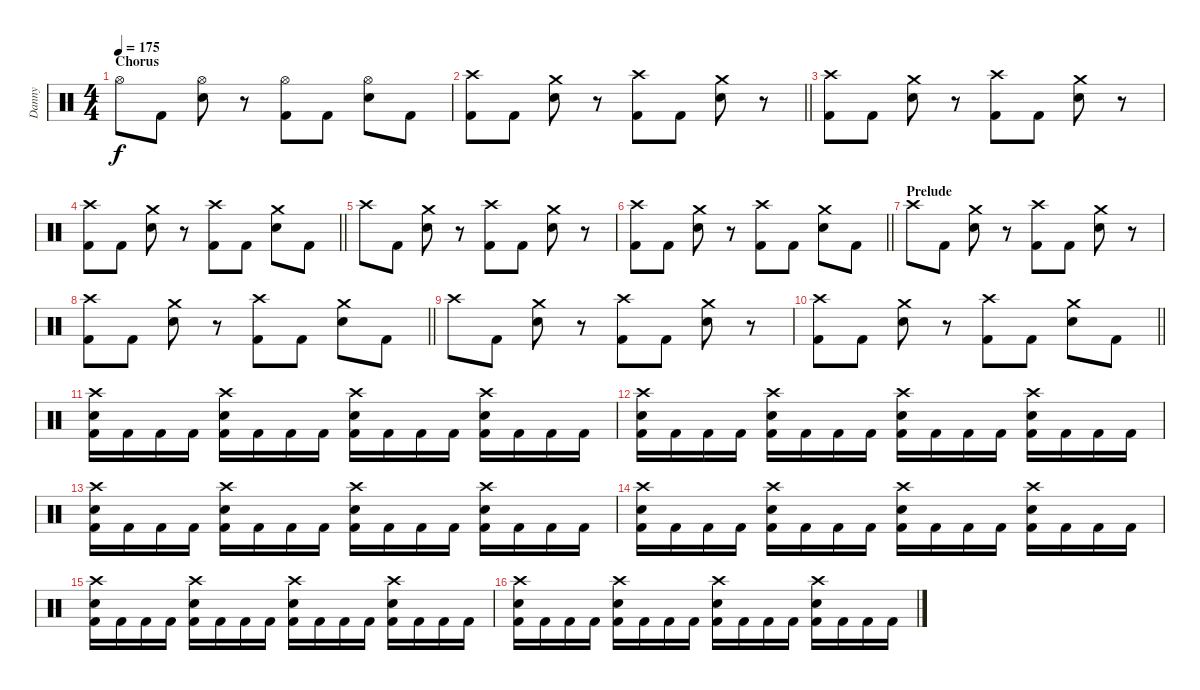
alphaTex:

\track ("Danny" "Danny") {instrument percussion}
\staff {score}
\articulation defaults
\ts (4 4)
\section ("" "Chorus")
\tempo 175
\clef neutral
\ks c "Hi-Hat (open)".8{dy f} "Kick (hit) 2".8
("Hi-Hat (open)" "Electric Snare (hit)").8 r.8 ("Hi-Hat (open)" "Kick (hit) 2").8 "Kick (hit) 2".8 ("Hi-Hat (open)" "Electric Snare (hit)").8 "Kick (hit) 2".8 |
\barLineRight lightlight
("Crash high (hit)" "Kick (hit) 2").8 "Kick (hit) 2".8 ("Crash medium (hit)" "Electric Snare (hit)").8 r.8 ("Crash high (hit)" "Kick (hit) 2").8 "Kick (hit) 2".8 ("Crash medium (hit)" "Electric Snare (hit)").8 r.8 |
("Crash high (hit)" "Kick (hit) 2").8 "Kick (hit) 2".8 ("Crash medium (hit)" "Electric Snare (hit)").8 r.8 ("Crash high (hit)" "Kick (hit) 2").8 "Kick (hit) 2".8 ("Crash medium (hit)" "Electric Snare (hit)").8 r.8 |
\barLineRight lightlight
("Crash high (hit)" "Kick (hit) 2").8 "Kick (hit) 2".8 ("Crash medium (hit)" "Electric Snare (hit)").8 r.8 ("Crash high (hit)" "Kick (hit) 2").8 "Kick (hit) 2".8 ("Crash medium (hit)" "Electric Snare (hit)").8 "Kick (hit) 2".8 |
"Crash high (hit)".8 "Kick (hit) 2".8 ("Crash medium (hit)" "Electric Snare (hit)").8 r.8 ("Crash high (hit)" "Kick (hit) 2").8 "Kick (hit) 2".8 ("Crash medium (hit)" "Electric Snare (hit)").8 r.8 |
\barLineRight lightlight
("Crash high (hit)" "Kick (hit) 2").8 "Kick (hit) 2".8 ("Crash medium (hit)" "Electric Snare (hit)").8 r.8 ("Crash high (hit)" "Kick (hit) 2").8 "Kick (hit) 2".8 ("Crash medium (hit)" "Electric Snare (hit)").8 "Kick (hit) 2".8 |
\section ("" "Prelude ")
"Crash high (hit)".8 "Kick (hit) 2".8 ("Crash medium (hit)" "Electric Snare (hit)").8 r.8 ("Crash high (hit)" "Kick (hit) 2").8 "Kick (hit) 2".8 ("Crash medium (hit)" "Electric Snare (hit)").8 r.8 |
\barLineRight lightlight
("Crash high (hit)" "Kick (hit) 2").8 "Kick (hit) 2".8 ("Crash medium (hit)" "Electric Snare (hit)").8 r.8 ("Crash high (hit)" "Kick (hit) 2").8 "Kick (hit) 2".8 ("Crash medium (hit)" "Electric Snare (hit)").8 "Kick (hit) 2".8 |
"Crash high (hit)".8 "Kick (hit) 2".8 ("Crash medium (hit)" "Electric Snare (hit)").8 r.8 ("Crash high (hit)" "Kick (hit) 2").8 "Kick (hit) 2".8 ("Crash medium (hit)" "Electric Snare (hit)").8 r.8 |
\barLineRight lightlight
("Crash high (hit)" "Kick (hit) 2").8 "Kick (hit) 2".8 ("Crash medium (hit)" "Electric Snare (hit)").8 r.8 ("Crash high (hit)" "Kick (hit) 2").8 "Kick (hit) 2".8 ("Crash medium (hit)" "Electric Snare (hit)").8 "Kick (hit) 2".8 |
("Crash high (hit)" "Electric Snare (hit)" "Kick (hit) 2").16 "Kick (hit) 2".16 "Kick (hit) 2".16 "Kick (hit) 2".16 ("Crash high (hit)" "Electric Snare (hit)" "Kick (hit) 2").16 "Kick (hit) 2".16 "Kick (hit) 2".16 "Kick (hit) 2".16 ("Crash high (hit)" "Electric Snare (hit)" "Kick (hit) 2").16 "Kick (hit) 2".16 "Kick (hit) 2".16 "Kick (hit) 2".16 ("Crash high (hit)" "Electric Snare (hit)" "Kick (hit) 2").16 "Kick (hit) 2".16 "Kick (hit) 2".16 "Kick (hit) 2".16 |
("Crash high (hit)" "Electric Snare (hit)" "Kick (hit) 2").16 "Kick (hit) 2".16 "Kick (hit) 2".16 "Kick (hit) 2".16 ("Crash high (hit)" "Electric Snare (hit)" "Kick (hit) 2").16 "Kick (hit) 2".16 "Kick (hit) 2".16 "Kick (hit) 2".16 ("Crash high (hit)" "Electric Snare (hit)" "Kick (hit) 2").16 "Kick (hit) 2".16 "Kick (hit) 2".16 "Kick (hit) 2".16 ("Crash high (hit)" "Electric Snare (hit)" "Kick (hit) 2").16 "Kick (hit) 2".16 "Kick (hit) 2".16 "Kick (hit) 2".16 |
("Crash high (hit)" "Electric Snare (hit)" "Kick (hit) 2").16 "Kick (hit) 2".16 "Kick (hit) 2".16 "Kick (hit) 2".16 ("Crash high (hit)" "Electric Snare (hit)" "Kick (hit) 2").16 "Kick (hit) 2".16 "Kick (hit) 2".16 "Kick (hit) 2".16 ("Crash high (hit)" "Electric Snare (hit)" "Kick (hit) 2").16 "Kick (hit) 2".16 "Kick (hit) 2".16 "Kick (hit) 2".16 ("Crash high (hit)" "Electric Snare (hit)" "Kick (hit) 2").16 "Kick (hit) 2".16 "Kick (hit) 2".16 "Kick (hit) 2".16 |
("Crash high (hit)" "Electric Snare (hit)" "Kick (hit) 2").16 "Kick (hit) 2".16 "Kick (hit) 2".16 "Kick (hit) 2".16 ("Crash high (hit)" "Electric Snare (hit)" "Kick (hit) 2").16 "Kick (hit) 2".16 "Kick (hit) 2".16 "Kick (hit) 2".16 ("Crash high (hit)" "Electric Snare (hit)" "Kick (hit) 2").16 "Kick (hit) 2".16 "Kick (hit) 2".16 "Kick (hit) 2".16 ("Crash high (hit)" "Electric Snare (hit)" "Kick (hit) 2").16 "Kick (hit) 2".16 "Kick (hit) 2".16 "Kick (hit) 2".16 |
("Crash high (hit)" "Electric Snare (hit)" "Kick (hit) 2").16 "Kick (hit) 2".16 "Kick (hit) 2".16 "Kick (hit) 2".16 ("Crash high (hit)" "Electric Snare (hit)" "Kick (hit) 2").16 "Kick (hit) 2".16 "Kick (hit) 2".16 "Kick (hit) 2".16 ("Crash high (hit)" "Electric Snare (hit)" "Kick (hit) 2").16 "Kick (hit) 2".16 "Kick (hit) 2".16 "Kick (hit) 2".16 ("Crash high (hit)" "Electric Snare (hit)" "Kick (hit) 2").16 "Kick (hit) 2".16 "Kick (hit) 2".16 "Kick (hit) 2".16 |
("Crash high (hit)" "Electric Snare (hit)" "Kick (hit) 2").16 "Kick (hit) 2".16 "Kick (hit) 2".16 "Kick (hit) 2".16 ("Crash high (hit)" "Electric Snare (hit)" "Kick (hit) 2").16 "Kick (hit) 2".16 "Kick (hit) 2".16 "Kick (hit) 2".16 ("Crash high (hit)" "Electric Snare (hit)" "Kick (hit) 2").16 "Kick (hit) 2".16 "Kick (hit) 2".16 "Kick (hit) 2".16 ("Crash high (hit)" "Electric Snare (hit)" "Kick (hit) 2").16 "Kick (hit) 2".16 "Kick (hit) 2".16 "Kick (hit) 2".16
